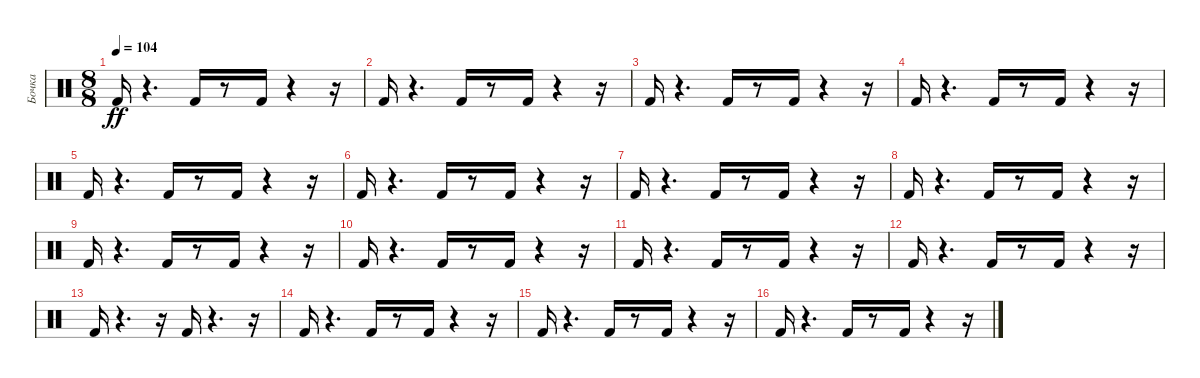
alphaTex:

\track ("Бочка" "Бочка") {instrument percussion}
\staff {score}
\articulation defaults
\ts (8 8)
\tempo 104
\clef neutral
\ks c "Kick (hit) 2".16{dy ff}
r.4{d} "Kick (hit) 2".16 r.8 "Kick (hit) 2".16 r.4 r.16 |
"Kick (hit) 2".16 r.4{d} "Kick (hit) 2".16 r.8 "Kick (hit) 2".16 r.4 r.16 |
"Kick (hit) 2".16 r.4{d} "Kick (hit) 2".16 r.8 "Kick (hit) 2".16 r.4 r.16 |
"Kick (hit) 2".16 r.4{d} "Kick (hit) 2".16 r.8 "Kick (hit) 2".16 r.4 r.16 |
"Kick (hit) 2".16 r.4{d} "Kick (hit) 2".16 r.8 "Kick (hit) 2".16 r.4 r.16 |
"Kick (hit) 2".16 r.4{d} "Kick (hit) 2".16 r.8 "Kick (hit) 2".16 r.4 r.16 |
"Kick (hit) 2".16 r.4{d} "Kick (hit) 2".16 r.8 "Kick (hit) 2".16 r.4 r.16 |
"Kick (hit) 2".16 r.4{d} "Kick (hit) 2".16 r.8 "Kick (hit) 2".16 r.4 r.16 |
"Kick (hit) 2".16 r.4{d} "Kick (hit) 2".16 r.8 "Kick (hit) 2".16 r.4 r.16 |
"Kick (hit) 2".16 r.4{d} "Kick (hit) 2".16 r.8 "Kick (hit) 2".16 r.4 r.16 |
"Kick (hit) 2".16 r.4{d} "Kick (hit) 2".16 r.8 "Kick (hit) 2".16 r.4 r.16 |
"Kick (hit) 2".16 r.4{d} "Kick (hit) 2".16 r.8 "Kick (hit) 2".16 r.4 r.16 |
"Kick (hit) 2".16 r.4{d} r.16 "Kick (hit) 2".16 r.4{d} r.16 |
"Kick (hit) 2".16 r.4{d} "Kick (hit) 2".16 r.8 "Kick (hit) 2".16 r.4 r.16 |
"Kick (hit) 2".16 r.4{d} "Kick (hit) 2".16 r.8 "Kick (hit) 2".16 r.4 r.16 |
"Kick (hit) 2".16 r.4{d} "Kick (hit) 2".16 r.8 "Kick (hit) 2".16 r.4 r.16
